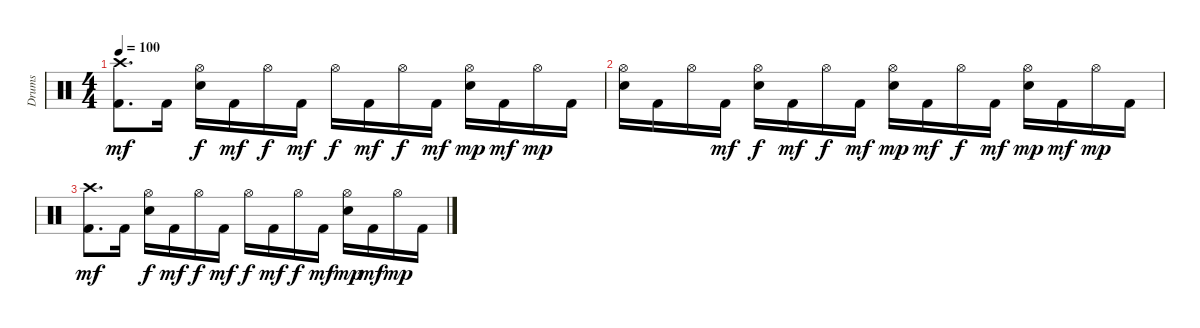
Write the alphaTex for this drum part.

\track ("Drums" "Drums") {instrument percussion}
\staff {score}
\articulation defaults
\ts (4 4)
\tempo 100
\clef neutral
\ks c
("Kick (hit) 2" "Crash high (hit)").8{d dy mf} "Kick (hit) 2".16 ("Snare (hit) 2" "Hi-Hat (open)").16{dy f} "Kick (hit) 2".16{dy mf} "Hi-Hat (open)".16{dy f} "Kick (hit) 2".16{dy mf} "Hi-Hat (open)".16{dy f} "Kick (hit) 2".16{dy mf} "Hi-Hat (open)".16{dy f} "Kick (hit) 2".16{dy mf} ("Snare (hit) 2" "Hi-Hat (open)").16{dy mp} "Kick (hit) 2".16{dy mf} "Hi-Hat (open)".16{dy mp} "Kick (hit) 2".16 |
("Snare (hit) 2" "Hi-Hat (open)").16{volume 0} "Kick (hit) 2".16 "Hi-Hat (open)".16 "Kick (hit) 2".16{dy mf} ("Snare (hit) 2" "Hi-Hat (open)").16{dy f} "Kick (hit) 2".16{dy mf} "Hi-Hat (open)".16{dy f} "Kick (hit) 2".16{dy mf} ("Snare (hit) 2" "Hi-Hat (open)").16{dy mp} "Kick (hit) 2".16{dy mf} "Hi-Hat (open)".16{dy f} "Kick (hit) 2".16{dy mf} ("Snare (hit) 2" "Hi-Hat (open)").16{dy mp} "Kick (hit) 2".16{dy mf} "Hi-Hat (open)".16{dy mp} "Kick (hit) 2".16 |
("Kick (hit) 2" "Crash high (hit)").8{d dy mf} "Kick (hit) 2".16 ("Snare (hit) 2" "Hi-Hat (open)").16{dy f} "Kick (hit) 2".16{dy mf} "Hi-Hat (open)".16{dy f} "Kick (hit) 2".16{dy mf} "Hi-Hat (open)".16{dy f} "Kick (hit) 2".16{dy mf} "Hi-Hat (open)".16{dy f} "Kick (hit) 2".16{dy mf} ("Snare (hit) 2" "Hi-Hat (open)").16{dy mp} "Kick (hit) 2".16{dy mf} "Hi-Hat (open)".16{dy mp} "Kick (hit) 2".16
